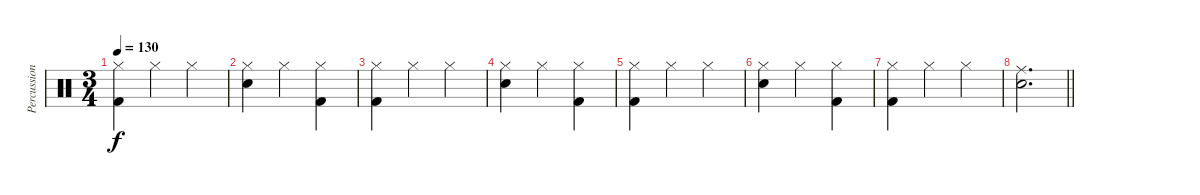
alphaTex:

\track ("Percussion" "Percussion") {instrument percussion}
\staff {score}
\articulation defaults
\ts (3 4)
\tempo 130
\clef neutral
\ks c
("Hi-Hat (closed)" "Kick (hit) 2").4{dy f} "Hi-Hat (closed)".4 "Hi-Hat (closed)".4 |
("Hi-Hat (closed)" "Electric Snare (hit)").4 "Hi-Hat (closed)".4 ("Hi-Hat (closed)" "Kick (hit) 2").4 |
("Hi-Hat (closed)" "Kick (hit) 2").4 "Hi-Hat (closed)".4 "Hi-Hat (closed)".4 |
("Hi-Hat (closed)" "Electric Snare (hit)").4 "Hi-Hat (closed)".4 ("Hi-Hat (closed)" "Kick (hit) 2").4 |
("Hi-Hat (closed)" "Kick (hit) 2").4 "Hi-Hat (closed)".4 "Hi-Hat (closed)".4 |
("Hi-Hat (closed)" "Electric Snare (hit)").4 "Hi-Hat (closed)".4 ("Hi-Hat (closed)" "Kick (hit) 2").4 |
("Hi-Hat (closed)" "Kick (hit) 2").4 "Hi-Hat (closed)".4 "Hi-Hat (closed)".4 |
\barLineRight lightlight
("Ride (middle)" "Electric Snare (hit)").2{d}
